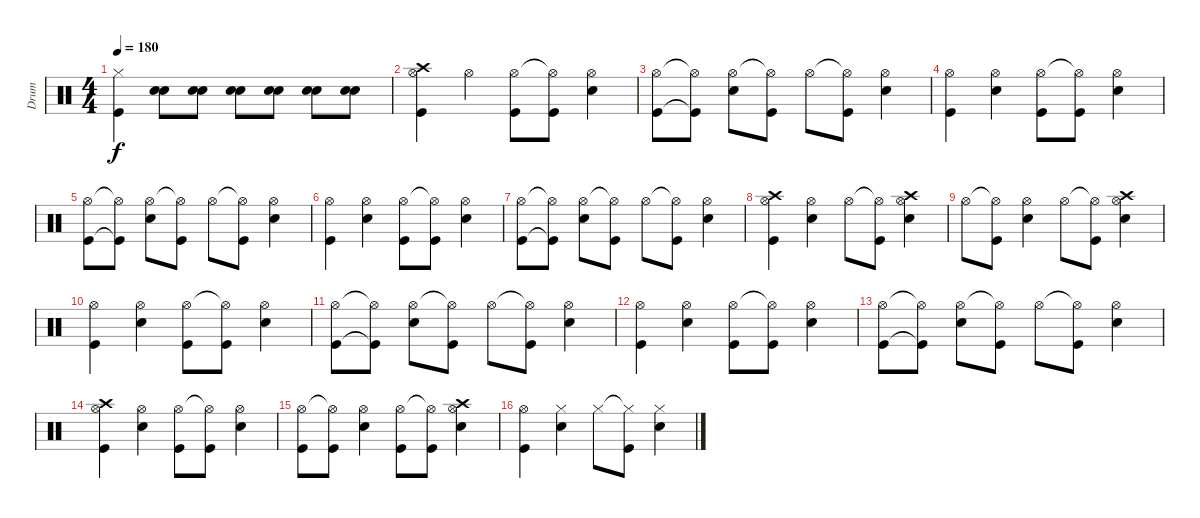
\track ("Drum" "Drum") {instrument percussion}
\staff {score}
\articulation defaults
\ts (4 4)
\tempo 180
\clef neutral
\ks c
("Hi-Hat (closed)" "Kick (hit)").4{dy f} ("Snare (hit) 2" "Snare (hit) 2").8 ("Snare (hit) 2" "Snare (hit) 2").8 ("Snare (hit) 2" "Snare (hit) 2").8 ("Snare (hit) 2" "Snare (hit) 2").8 ("Snare (hit) 2" "Snare (hit) 2").8 ("Snare (hit) 2" "Snare (hit) 2").8 |
("Hi-Hat (open)" "Crash high (hit)" "Kick (hit)").4 "Hi-Hat (open)".4 ("Hi-Hat (open)" "Kick (hit)").8 ("Hi-Hat (open)"{t} "Kick (hit)").8 ("Hi-Hat (open)" "Snare (hit) 2").4 |
("Hi-Hat (open)" "Kick (hit)").8 ("Hi-Hat (open)"{t} "Kick (hit)"{t}).8 ("Hi-Hat (open)" "Snare (hit) 2").8 ("Hi-Hat (open)"{t} "Kick (hit)").8 "Hi-Hat (open)".8 ("Hi-Hat (open)"{t} "Kick (hit)").8 ("Hi-Hat (open)" "Snare (hit) 2").4 |
("Hi-Hat (open)" "Kick (hit)").4 ("Hi-Hat (open)" "Snare (hit) 2").4 ("Hi-Hat (open)" "Kick (hit)").8 ("Hi-Hat (open)"{t} "Kick (hit)").8 ("Hi-Hat (open)" "Snare (hit) 2").4 |
("Hi-Hat (open)" "Kick (hit)").8 ("Hi-Hat (open)"{t} "Kick (hit)"{t}).8 ("Hi-Hat (open)" "Snare (hit) 2").8 ("Hi-Hat (open)"{t} "Kick (hit)").8 "Hi-Hat (open)".8 ("Hi-Hat (open)"{t} "Kick (hit)").8 ("Hi-Hat (open)" "Snare (hit) 2").4 |
("Hi-Hat (open)" "Kick (hit)").4 ("Hi-Hat (open)" "Snare (hit) 2").4 ("Hi-Hat (open)" "Kick (hit)").8 ("Hi-Hat (open)"{t} "Kick (hit)").8 ("Hi-Hat (open)" "Snare (hit) 2").4 |
("Hi-Hat (open)" "Kick (hit)").8 ("Hi-Hat (open)"{t} "Kick (hit)"{t}).8 ("Hi-Hat (open)" "Snare (hit) 2").8 ("Hi-Hat (open)"{t} "Kick (hit)").8 "Hi-Hat (open)".8 ("Hi-Hat (open)"{t} "Kick (hit)").8 ("Hi-Hat (open)" "Snare (hit) 2").4 |
("Crash high (hit)" "Hi-Hat (open)" "Kick (hit)").4 ("Hi-Hat (open)" "Snare (hit) 2").4 "Hi-Hat (open)".8 ("Hi-Hat (open)"{t} "Kick (hit)").8 ("Hi-Hat (open)" "Snare (hit) 2" "Crash high (hit)").4 |
"Hi-Hat (open)".8 ("Hi-Hat (open)"{t} "Kick (hit)").8 ("Hi-Hat (open)" "Snare (hit) 2").4 "Hi-Hat (open)".8 ("Hi-Hat (open)"{t} "Kick (hit)").8 ("Hi-Hat (open)" "Snare (hit) 2" "Crash high (hit)").4 |
("Hi-Hat (open)" "Kick (hit)").4 ("Hi-Hat (open)" "Snare (hit) 2").4 ("Hi-Hat (open)" "Kick (hit)").8 ("Hi-Hat (open)"{t} "Kick (hit)").8 ("Hi-Hat (open)" "Snare (hit) 2").4 |
("Hi-Hat (open)" "Kick (hit)").8 ("Hi-Hat (open)"{t} "Kick (hit)"{t}).8 ("Hi-Hat (open)" "Snare (hit) 2").8 ("Hi-Hat (open)"{t} "Kick (hit)").8 "Hi-Hat (open)".8 ("Hi-Hat (open)"{t} "Kick (hit)").8 ("Hi-Hat (open)" "Snare (hit) 2").4 |
("Hi-Hat (open)" "Kick (hit)").4 ("Hi-Hat (open)" "Snare (hit) 2").4 ("Hi-Hat (open)" "Kick (hit)").8 ("Hi-Hat (open)"{t} "Kick (hit)").8 ("Hi-Hat (open)" "Snare (hit) 2").4 |
("Hi-Hat (open)" "Kick (hit)").8 ("Hi-Hat (open)"{t} "Kick (hit)"{t}).8 ("Hi-Hat (open)" "Snare (hit) 2").8 ("Hi-Hat (open)"{t} "Kick (hit)").8 "Hi-Hat (open)".8 ("Hi-Hat (open)"{t} "Kick (hit)").8 ("Hi-Hat (open)" "Snare (hit) 2").4 |
("Hi-Hat (open)" "Crash high (hit)" "Kick (hit)").4 ("Hi-Hat (open)" "Snare (hit) 2").4 ("Hi-Hat (open)" "Kick (hit)").8 ("Hi-Hat (open)"{t} "Kick (hit)").8 ("Hi-Hat (open)" "Snare (hit) 2").4 |
("Hi-Hat (open)" "Kick (hit)").8 ("Hi-Hat (open)"{t} "Kick (hit)").8 ("Hi-Hat (open)" "Snare (hit) 2").4 ("Hi-Hat (open)" "Kick (hit)").8 ("Hi-Hat (open)"{t} "Kick (hit)").8 ("Hi-Hat (open)" "Snare (hit) 2" "Crash high (hit)").4 |
("Hi-Hat (open)" "Kick (hit)").4 ("Hi-Hat (closed)" "Snare (hit) 2").4 "Hi-Hat (closed)".8 ("Hi-Hat (closed)"{t} "Kick (hit)").8 ("Hi-Hat (closed)" "Snare (hit) 2").4
